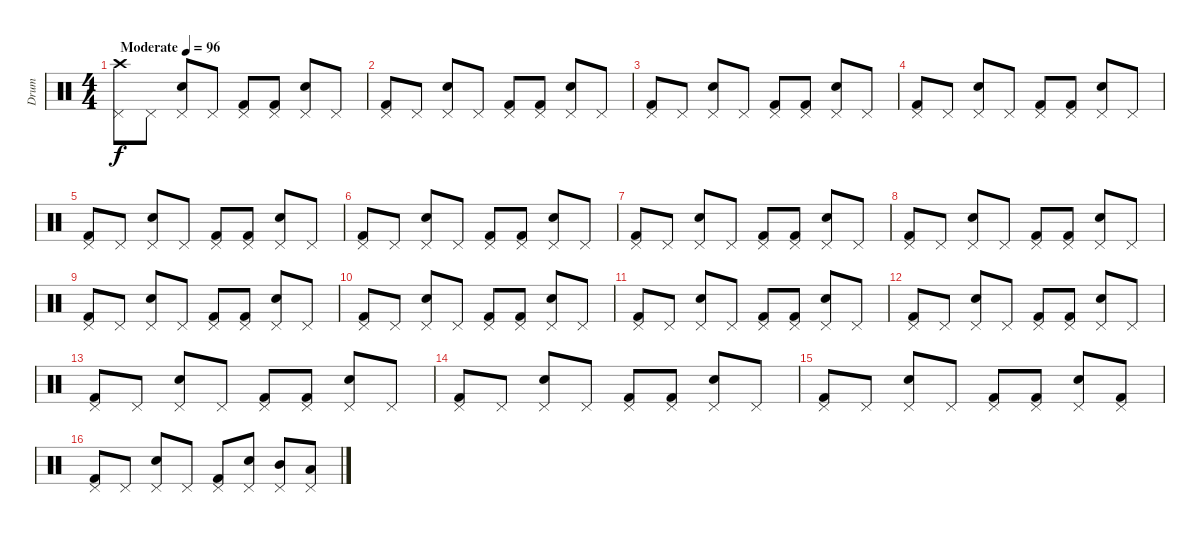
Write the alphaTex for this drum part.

\track ("Drum" "Drum") {instrument percussion}
\staff {score}
\articulation defaults
\ts (4 4)
\tempo (96 "Moderate")
\clef neutral
\ks c
("Pedal Hi-Hat (hit)" "Crash high (hit)").8{dy f} "Pedal Hi-Hat (hit)".8 ("Pedal Hi-Hat (hit)" "Snare (hit) 2").8 "Pedal Hi-Hat (hit)".8 ("Pedal Hi-Hat (hit)" "Kick (hit) 2").8 ("Pedal Hi-Hat (hit)" "Kick (hit) 2").8 ("Pedal Hi-Hat (hit)" "Snare (hit) 2").8 "Pedal Hi-Hat (hit)".8 |
("Pedal Hi-Hat (hit)" "Kick (hit) 2").8 "Pedal Hi-Hat (hit)".8 ("Pedal Hi-Hat (hit)" "Snare (hit) 2").8 "Pedal Hi-Hat (hit)".8 ("Pedal Hi-Hat (hit)" "Kick (hit) 2").8 ("Pedal Hi-Hat (hit)" "Kick (hit) 2").8 ("Pedal Hi-Hat (hit)" "Snare (hit) 2").8 "Pedal Hi-Hat (hit)".8 |
("Pedal Hi-Hat (hit)" "Kick (hit) 2").8 "Pedal Hi-Hat (hit)".8 ("Pedal Hi-Hat (hit)" "Snare (hit) 2").8 "Pedal Hi-Hat (hit)".8 ("Pedal Hi-Hat (hit)" "Kick (hit) 2").8 ("Pedal Hi-Hat (hit)" "Kick (hit) 2").8 ("Pedal Hi-Hat (hit)" "Snare (hit) 2").8 "Pedal Hi-Hat (hit)".8 |
("Pedal Hi-Hat (hit)" "Kick (hit) 2").8 "Pedal Hi-Hat (hit)".8 ("Pedal Hi-Hat (hit)" "Snare (hit) 2").8 "Pedal Hi-Hat (hit)".8 ("Pedal Hi-Hat (hit)" "Kick (hit) 2").8 ("Pedal Hi-Hat (hit)" "Kick (hit) 2").8 ("Pedal Hi-Hat (hit)" "Snare (hit) 2").8 "Pedal Hi-Hat (hit)".8 |
("Pedal Hi-Hat (hit)" "Kick (hit) 2").8 "Pedal Hi-Hat (hit)".8 ("Pedal Hi-Hat (hit)" "Snare (hit) 2").8 "Pedal Hi-Hat (hit)".8 ("Pedal Hi-Hat (hit)" "Kick (hit) 2").8 ("Pedal Hi-Hat (hit)" "Kick (hit) 2").8 ("Pedal Hi-Hat (hit)" "Snare (hit) 2").8 "Pedal Hi-Hat (hit)".8 |
("Pedal Hi-Hat (hit)" "Kick (hit) 2").8 "Pedal Hi-Hat (hit)".8 ("Pedal Hi-Hat (hit)" "Snare (hit) 2").8 "Pedal Hi-Hat (hit)".8 ("Pedal Hi-Hat (hit)" "Kick (hit) 2").8 ("Pedal Hi-Hat (hit)" "Kick (hit) 2").8 ("Pedal Hi-Hat (hit)" "Snare (hit) 2").8 "Pedal Hi-Hat (hit)".8 |
("Pedal Hi-Hat (hit)" "Kick (hit) 2").8 "Pedal Hi-Hat (hit)".8 ("Pedal Hi-Hat (hit)" "Snare (hit) 2").8 "Pedal Hi-Hat (hit)".8 ("Pedal Hi-Hat (hit)" "Kick (hit) 2").8 ("Pedal Hi-Hat (hit)" "Kick (hit) 2").8 ("Pedal Hi-Hat (hit)" "Snare (hit) 2").8 "Pedal Hi-Hat (hit)".8 |
("Pedal Hi-Hat (hit)" "Kick (hit) 2").8 "Pedal Hi-Hat (hit)".8 ("Pedal Hi-Hat (hit)" "Snare (hit) 2").8 "Pedal Hi-Hat (hit)".8 ("Pedal Hi-Hat (hit)" "Kick (hit) 2").8 ("Pedal Hi-Hat (hit)" "Kick (hit) 2").8 ("Pedal Hi-Hat (hit)" "Snare (hit) 2").8 "Pedal Hi-Hat (hit)".8 |
("Pedal Hi-Hat (hit)" "Kick (hit) 2").8 "Pedal Hi-Hat (hit)".8 ("Pedal Hi-Hat (hit)" "Snare (hit) 2").8 "Pedal Hi-Hat (hit)".8 ("Pedal Hi-Hat (hit)" "Kick (hit) 2").8 ("Pedal Hi-Hat (hit)" "Kick (hit) 2").8 ("Pedal Hi-Hat (hit)" "Snare (hit) 2").8 "Pedal Hi-Hat (hit)".8 |
("Pedal Hi-Hat (hit)" "Kick (hit) 2").8 "Pedal Hi-Hat (hit)".8 ("Pedal Hi-Hat (hit)" "Snare (hit) 2").8 "Pedal Hi-Hat (hit)".8 ("Pedal Hi-Hat (hit)" "Kick (hit) 2").8 ("Pedal Hi-Hat (hit)" "Kick (hit) 2").8 ("Pedal Hi-Hat (hit)" "Snare (hit) 2").8 "Pedal Hi-Hat (hit)".8 |
("Pedal Hi-Hat (hit)" "Kick (hit) 2").8 "Pedal Hi-Hat (hit)".8 ("Pedal Hi-Hat (hit)" "Snare (hit) 2").8 "Pedal Hi-Hat (hit)".8 ("Pedal Hi-Hat (hit)" "Kick (hit) 2").8 ("Pedal Hi-Hat (hit)" "Kick (hit) 2").8 ("Pedal Hi-Hat (hit)" "Snare (hit) 2").8 "Pedal Hi-Hat (hit)".8 |
("Pedal Hi-Hat (hit)" "Kick (hit) 2").8 "Pedal Hi-Hat (hit)".8 ("Pedal Hi-Hat (hit)" "Snare (hit) 2").8 "Pedal Hi-Hat (hit)".8 ("Pedal Hi-Hat (hit)" "Kick (hit) 2").8 ("Pedal Hi-Hat (hit)" "Kick (hit) 2").8 ("Pedal Hi-Hat (hit)" "Snare (hit) 2").8 "Pedal Hi-Hat (hit)".8 |
("Pedal Hi-Hat (hit)" "Kick (hit) 2").8 "Pedal Hi-Hat (hit)".8 ("Pedal Hi-Hat (hit)" "Snare (hit) 2").8 "Pedal Hi-Hat (hit)".8 ("Pedal Hi-Hat (hit)" "Kick (hit) 2").8 ("Pedal Hi-Hat (hit)" "Kick (hit) 2").8 ("Pedal Hi-Hat (hit)" "Snare (hit) 2").8 "Pedal Hi-Hat (hit)".8 |
("Pedal Hi-Hat (hit)" "Kick (hit) 2").8 "Pedal Hi-Hat (hit)".8 ("Pedal Hi-Hat (hit)" "Snare (hit) 2").8 "Pedal Hi-Hat (hit)".8 ("Pedal Hi-Hat (hit)" "Kick (hit) 2").8 ("Pedal Hi-Hat (hit)" "Kick (hit) 2").8 ("Pedal Hi-Hat (hit)" "Snare (hit) 2").8 "Pedal Hi-Hat (hit)".8 |
("Pedal Hi-Hat (hit)" "Kick (hit) 2").8 "Pedal Hi-Hat (hit)".8 ("Pedal Hi-Hat (hit)" "Snare (hit) 2").8 "Pedal Hi-Hat (hit)".8 ("Pedal Hi-Hat (hit)" "Kick (hit) 2").8 ("Pedal Hi-Hat (hit)" "Kick (hit) 2").8 ("Pedal Hi-Hat (hit)" "Snare (hit) 2").8 ("Pedal Hi-Hat (hit)" "Kick (hit) 2").8 |
("Pedal Hi-Hat (hit)" "Kick (hit) 2").8 "Pedal Hi-Hat (hit)".8 ("Pedal Hi-Hat (hit)" "Snare (hit) 2").8 "Pedal Hi-Hat (hit)".8 ("Pedal Hi-Hat (hit)" "Kick (hit) 2").8 ("Pedal Hi-Hat (hit)" "Snare (hit) 2").8 ("Pedal Hi-Hat (hit)" "Mid Tom (hit)").8 ("Pedal Hi-Hat (hit)" "Low Tom (hit)").8
